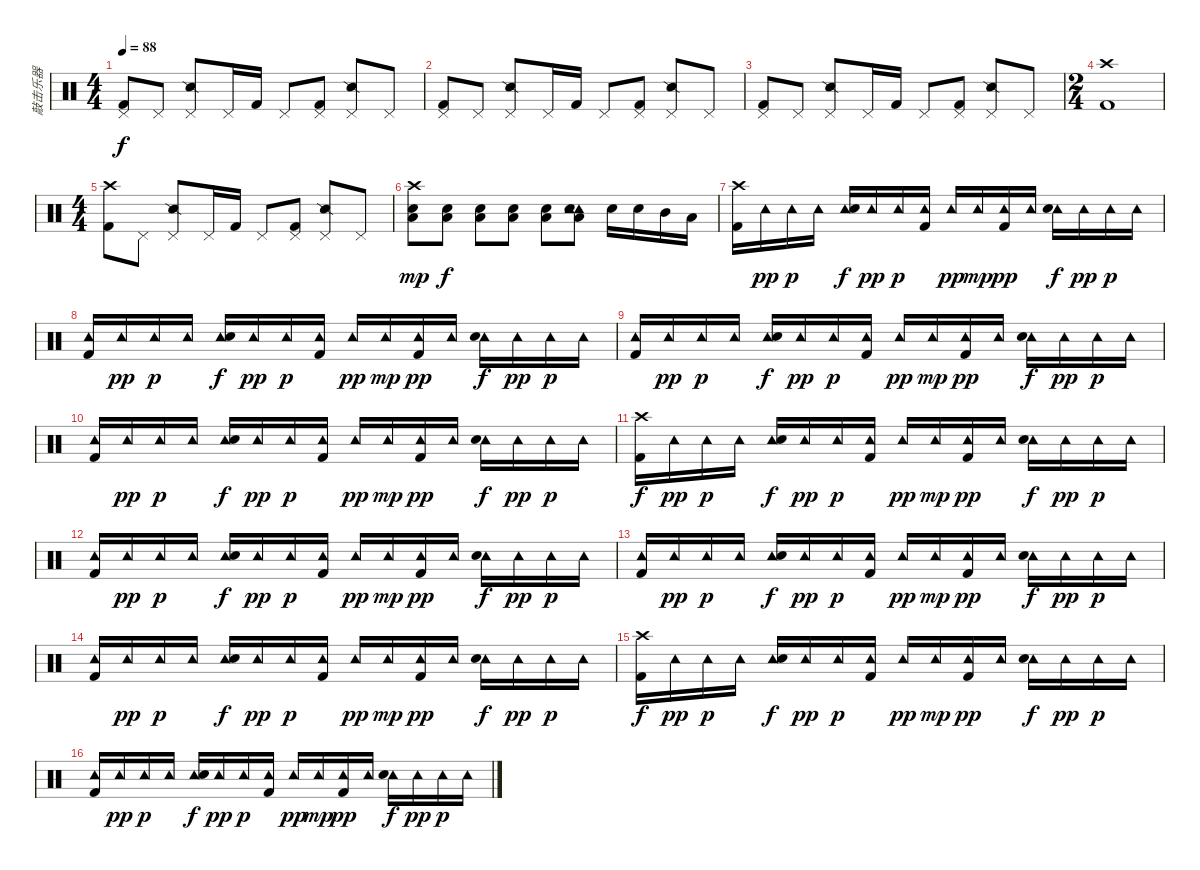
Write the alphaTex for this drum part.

\track ("敲击乐器" "敲击乐器") {instrument percussion}
\staff {score}
\articulation defaults
\ts (4 4)
\tempo 88
\clef neutral
\ks c
("Pedal Hi-Hat (hit)" "Kick (hit) 2").8{dy f} "Pedal Hi-Hat (hit)".8 ("Pedal Hi-Hat (hit)" "Snare (side stick) 2").8 "Pedal Hi-Hat (hit)".16 "Kick (hit) 2".16 "Pedal Hi-Hat (hit)".8 ("Pedal Hi-Hat (hit)" "Kick (hit) 2").8 ("Pedal Hi-Hat (hit)" "Snare (side stick) 2").8 "Pedal Hi-Hat (hit)".8 |
("Pedal Hi-Hat (hit)" "Kick (hit) 2").8 "Pedal Hi-Hat (hit)".8 ("Pedal Hi-Hat (hit)" "Snare (side stick) 2").8 "Pedal Hi-Hat (hit)".16 "Kick (hit) 2".16 "Pedal Hi-Hat (hit)".8 ("Pedal Hi-Hat (hit)" "Kick (hit) 2").8 ("Pedal Hi-Hat (hit)" "Snare (side stick) 2").8 "Pedal Hi-Hat (hit)".8 |
("Pedal Hi-Hat (hit)" "Kick (hit) 2").8 "Pedal Hi-Hat (hit)".8 ("Pedal Hi-Hat (hit)" "Snare (side stick) 2").8 "Pedal Hi-Hat (hit)".16 "Kick (hit) 2".16 "Pedal Hi-Hat (hit)".8 ("Pedal Hi-Hat (hit)" "Kick (hit) 2").8 ("Pedal Hi-Hat (hit)" "Snare (side stick) 2").8 "Pedal Hi-Hat (hit)".8 |
\ts (2 4)
("Crash high (hit)" "Kick (hit) 2").1 |
\ts (4 4)
("Crash high (hit)" "Kick (hit) 2").8 "Pedal Hi-Hat (hit)".8 ("Pedal Hi-Hat (hit)" "Snare (side stick) 2").8 "Pedal Hi-Hat (hit)".16 "Kick (hit) 2".16 "Pedal Hi-Hat (hit)".8 ("Pedal Hi-Hat (hit)" "Kick (hit) 2").8 ("Pedal Hi-Hat (hit)" "Snare (side stick) 2").8 "Pedal Hi-Hat (hit)".8 |
("Crash high (hit)" "Electric Snare (hit)" "Low Tom (hit)").8{dy mp} ("Electric Snare (hit)" "Low Tom (hit)").8{dy f} ("Electric Snare (hit)" "Low Tom (hit)").8 ("Electric Snare (hit)" "Low Tom (hit)").8 ("Electric Snare (hit)" "Low Tom (hit)").8 ("Tambourine (hit)" "Electric Snare (hit)" "Low Tom (hit)" "Tambourine (hit)").8 "Electric Snare (hit)".16 "Electric Snare (hit)".16 "Mid Tom (hit)".16 "Low Tom (hit)".16 |
("Crash high (hit)" "Kick (hit) 2").16 "Tambourine (hit)".16{dy pp} "Tambourine (hit)".16{dy p} "Tambourine (hit)".16 ("Tambourine (hit)" "Electric Snare (hit)").16{dy f} "Tambourine (hit)".16{dy pp} "Tambourine (hit)".16{dy p} ("Tambourine (hit)" "Kick (hit) 2").16 "Tambourine (hit)".16{dy pp} "Tambourine (hit)".16{dy mp} ("Tambourine (hit)" "Kick (hit) 2").16{dy pp} "Tambourine (hit)".16 ("Tambourine (hit)" "Electric Snare (hit)").16{dy f} "Tambourine (hit)".16{dy pp} "Tambourine (hit)".16{dy p} "Tambourine (hit)".16 |
("Tambourine (hit)" "Kick (hit) 2").16 "Tambourine (hit)".16{dy pp} "Tambourine (hit)".16{dy p} "Tambourine (hit)".16 ("Tambourine (hit)" "Electric Snare (hit)").16{dy f} "Tambourine (hit)".16{dy pp} "Tambourine (hit)".16{dy p} ("Tambourine (hit)" "Kick (hit) 2").16 "Tambourine (hit)".16{dy pp} "Tambourine (hit)".16{dy mp} ("Tambourine (hit)" "Kick (hit) 2").16{dy pp} "Tambourine (hit)".16 ("Tambourine (hit)" "Electric Snare (hit)").16{dy f} "Tambourine (hit)".16{dy pp} "Tambourine (hit)".16{dy p} "Tambourine (hit)".16 |
("Tambourine (hit)" "Kick (hit) 2").16 "Tambourine (hit)".16{dy pp} "Tambourine (hit)".16{dy p} "Tambourine (hit)".16 ("Tambourine (hit)" "Electric Snare (hit)").16{dy f} "Tambourine (hit)".16{dy pp} "Tambourine (hit)".16{dy p} ("Tambourine (hit)" "Kick (hit) 2").16 "Tambourine (hit)".16{dy pp} "Tambourine (hit)".16{dy mp} ("Tambourine (hit)" "Kick (hit) 2").16{dy pp} "Tambourine (hit)".16 ("Tambourine (hit)" "Electric Snare (hit)").16{dy f} "Tambourine (hit)".16{dy pp} "Tambourine (hit)".16{dy p} "Tambourine (hit)".16 |
("Tambourine (hit)" "Kick (hit) 2").16 "Tambourine (hit)".16{dy pp} "Tambourine (hit)".16{dy p} "Tambourine (hit)".16 ("Tambourine (hit)" "Electric Snare (hit)").16{dy f} "Tambourine (hit)".16{dy pp} "Tambourine (hit)".16{dy p} ("Tambourine (hit)" "Kick (hit) 2").16 "Tambourine (hit)".16{dy pp} "Tambourine (hit)".16{dy mp} ("Tambourine (hit)" "Kick (hit) 2").16{dy pp} "Tambourine (hit)".16 ("Tambourine (hit)" "Electric Snare (hit)").16{dy f} "Tambourine (hit)".16{dy pp} "Tambourine (hit)".16{dy p} "Tambourine (hit)".16 |
("Crash high (hit)" "Kick (hit) 2").16{dy f} "Tambourine (hit)".16{dy pp} "Tambourine (hit)".16{dy p} "Tambourine (hit)".16 ("Tambourine (hit)" "Electric Snare (hit)").16{dy f} "Tambourine (hit)".16{dy pp} "Tambourine (hit)".16{dy p} ("Tambourine (hit)" "Kick (hit) 2").16 "Tambourine (hit)".16{dy pp} "Tambourine (hit)".16{dy mp} ("Tambourine (hit)" "Kick (hit) 2").16{dy pp} "Tambourine (hit)".16 ("Tambourine (hit)" "Electric Snare (hit)").16{dy f} "Tambourine (hit)".16{dy pp} "Tambourine (hit)".16{dy p} "Tambourine (hit)".16 |
("Tambourine (hit)" "Kick (hit) 2").16 "Tambourine (hit)".16{dy pp} "Tambourine (hit)".16{dy p} "Tambourine (hit)".16 ("Tambourine (hit)" "Electric Snare (hit)").16{dy f} "Tambourine (hit)".16{dy pp} "Tambourine (hit)".16{dy p} ("Tambourine (hit)" "Kick (hit) 2").16 "Tambourine (hit)".16{dy pp} "Tambourine (hit)".16{dy mp} ("Tambourine (hit)" "Kick (hit) 2").16{dy pp} "Tambourine (hit)".16 ("Tambourine (hit)" "Electric Snare (hit)").16{dy f} "Tambourine (hit)".16{dy pp} "Tambourine (hit)".16{dy p} "Tambourine (hit)".16 |
("Tambourine (hit)" "Kick (hit) 2").16 "Tambourine (hit)".16{dy pp} "Tambourine (hit)".16{dy p} "Tambourine (hit)".16 ("Tambourine (hit)" "Electric Snare (hit)").16{dy f} "Tambourine (hit)".16{dy pp} "Tambourine (hit)".16{dy p} ("Tambourine (hit)" "Kick (hit) 2").16 "Tambourine (hit)".16{dy pp} "Tambourine (hit)".16{dy mp} ("Tambourine (hit)" "Kick (hit) 2").16{dy pp} "Tambourine (hit)".16 ("Tambourine (hit)" "Electric Snare (hit)").16{dy f} "Tambourine (hit)".16{dy pp} "Tambourine (hit)".16{dy p} "Tambourine (hit)".16 |
("Tambourine (hit)" "Kick (hit) 2").16 "Tambourine (hit)".16{dy pp} "Tambourine (hit)".16{dy p} "Tambourine (hit)".16 ("Tambourine (hit)" "Electric Snare (hit)").16{dy f} "Tambourine (hit)".16{dy pp} "Tambourine (hit)".16{dy p} ("Tambourine (hit)" "Kick (hit) 2").16 "Tambourine (hit)".16{dy pp} "Tambourine (hit)".16{dy mp} ("Tambourine (hit)" "Kick (hit) 2").16{dy pp} "Tambourine (hit)".16 ("Tambourine (hit)" "Electric Snare (hit)").16{dy f} "Tambourine (hit)".16{dy pp} "Tambourine (hit)".16{dy p} "Tambourine (hit)".16 |
("Crash high (hit)" "Kick (hit) 2").16{dy f} "Tambourine (hit)".16{dy pp} "Tambourine (hit)".16{dy p} "Tambourine (hit)".16 ("Tambourine (hit)" "Electric Snare (hit)").16{dy f} "Tambourine (hit)".16{dy pp} "Tambourine (hit)".16{dy p} ("Tambourine (hit)" "Kick (hit) 2").16 "Tambourine (hit)".16{dy pp} "Tambourine (hit)".16{dy mp} ("Tambourine (hit)" "Kick (hit) 2").16{dy pp} "Tambourine (hit)".16 ("Tambourine (hit)" "Electric Snare (hit)").16{dy f} "Tambourine (hit)".16{dy pp} "Tambourine (hit)".16{dy p} "Tambourine (hit)".16 |
("Tambourine (hit)" "Kick (hit) 2").16 "Tambourine (hit)".16{dy pp} "Tambourine (hit)".16{dy p} "Tambourine (hit)".16 ("Tambourine (hit)" "Electric Snare (hit)").16{dy f} "Tambourine (hit)".16{dy pp} "Tambourine (hit)".16{dy p} ("Tambourine (hit)" "Kick (hit) 2").16 "Tambourine (hit)".16{dy pp} "Tambourine (hit)".16{dy mp} ("Tambourine (hit)" "Kick (hit) 2").16{dy pp} "Tambourine (hit)".16 ("Tambourine (hit)" "Electric Snare (hit)").16{dy f} "Tambourine (hit)".16{dy pp} "Tambourine (hit)".16{dy p} "Tambourine (hit)".16
